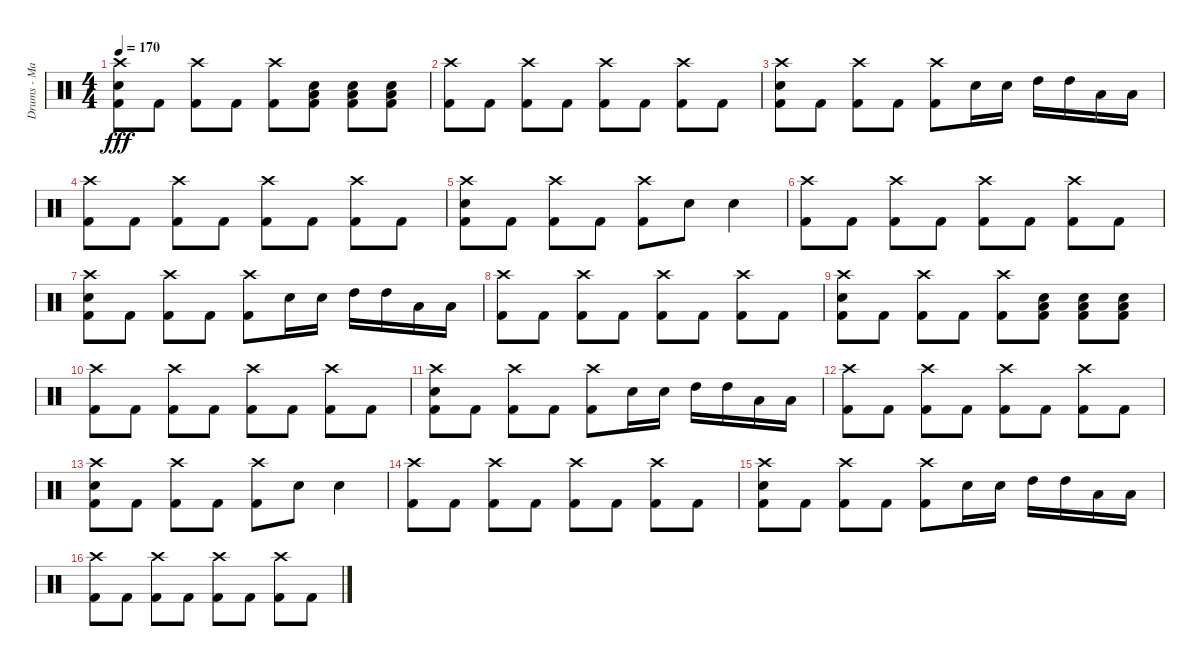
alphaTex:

\track ("Drums - Matt Traynor" "Drums - Ma") {instrument percussion}
\staff {score}
\articulation defaults
\ts (4 4)
\tempo 170
\clef neutral
\ks c
("Crash high (hit)" "Snare (hit) 2" "Kick (hit) 2").8{dy fff} "Kick (hit) 2".8 ("Crash high (hit)" "Kick (hit) 2").8 "Kick (hit) 2".8 ("Crash high (hit)" "Kick (hit) 2").8 ("Snare (hit) 2" "Low Tom (hit)" "Kick (hit) 2").8 ("Snare (hit) 2" "Low Tom (hit)" "Kick (hit) 2").8 ("Snare (hit) 2" "Low Tom (hit)" "Kick (hit) 2").8 |
("Crash high (hit)" "Kick (hit) 2").8 "Kick (hit) 2".8 ("Crash high (hit)" "Kick (hit) 2").8 "Kick (hit) 2".8 ("Crash high (hit)" "Kick (hit) 2").8 "Kick (hit) 2".8 ("Crash high (hit)" "Kick (hit) 2").8 "Kick (hit) 2".8 |
("Crash high (hit)" "Snare (hit) 2" "Kick (hit) 2").8 "Kick (hit) 2".8 ("Crash high (hit)" "Kick (hit) 2").8 "Kick (hit) 2".8 ("Crash high (hit)" "Kick (hit) 2").8 "Snare (hit) 2".16 "Snare (hit) 2".16 "High Tom (hit)".16 "High Tom (hit)".16 "Low Tom (hit)".16 "Low Tom (hit)".16 |
("Crash high (hit)" "Kick (hit) 2").8 "Kick (hit) 2".8 ("Crash high (hit)" "Kick (hit) 2").8 "Kick (hit) 2".8 ("Crash high (hit)" "Kick (hit) 2").8 "Kick (hit) 2".8 ("Crash high (hit)" "Kick (hit) 2").8 "Kick (hit) 2".8 |
("Crash high (hit)" "Snare (hit) 2" "Kick (hit) 2").8 "Kick (hit) 2".8 ("Crash high (hit)" "Kick (hit) 2").8 "Kick (hit) 2".8 ("Crash high (hit)" "Kick (hit) 2").8 "Snare (hit) 2".8 "Snare (hit) 2".4 |
("Crash high (hit)" "Kick (hit) 2").8 "Kick (hit) 2".8 ("Crash high (hit)" "Kick (hit) 2").8 "Kick (hit) 2".8 ("Crash high (hit)" "Kick (hit) 2").8 "Kick (hit) 2".8 ("Crash high (hit)" "Kick (hit) 2").8 "Kick (hit) 2".8 |
("Crash high (hit)" "Snare (hit) 2" "Kick (hit) 2").8 "Kick (hit) 2".8 ("Crash high (hit)" "Kick (hit) 2").8 "Kick (hit) 2".8 ("Crash high (hit)" "Kick (hit) 2").8 "Snare (hit) 2".16 "Snare (hit) 2".16 "High Tom (hit)".16 "High Tom (hit)".16 "Low Tom (hit)".16 "Low Tom (hit)".16 |
("Crash high (hit)" "Kick (hit) 2").8 "Kick (hit) 2".8 ("Crash high (hit)" "Kick (hit) 2").8 "Kick (hit) 2".8 ("Crash high (hit)" "Kick (hit) 2").8 "Kick (hit) 2".8 ("Crash high (hit)" "Kick (hit) 2").8 "Kick (hit) 2".8 |
("Crash high (hit)" "Snare (hit) 2" "Kick (hit) 2").8 "Kick (hit) 2".8 ("Crash high (hit)" "Kick (hit) 2").8 "Kick (hit) 2".8 ("Crash high (hit)" "Kick (hit) 2").8 ("Snare (hit) 2" "Low Tom (hit)" "Kick (hit) 2").8 ("Snare (hit) 2" "Low Tom (hit)" "Kick (hit) 2").8 ("Snare (hit) 2" "Low Tom (hit)" "Kick (hit) 2").8 |
("Crash high (hit)" "Kick (hit) 2").8 "Kick (hit) 2".8 ("Crash high (hit)" "Kick (hit) 2").8 "Kick (hit) 2".8 ("Crash high (hit)" "Kick (hit) 2").8 "Kick (hit) 2".8 ("Crash high (hit)" "Kick (hit) 2").8 "Kick (hit) 2".8 |
("Crash high (hit)" "Snare (hit) 2" "Kick (hit) 2").8 "Kick (hit) 2".8 ("Crash high (hit)" "Kick (hit) 2").8 "Kick (hit) 2".8 ("Crash high (hit)" "Kick (hit) 2").8 "Snare (hit) 2".16 "Snare (hit) 2".16 "High Tom (hit)".16 "High Tom (hit)".16 "Low Tom (hit)".16 "Low Tom (hit)".16 |
("Crash high (hit)" "Kick (hit) 2").8 "Kick (hit) 2".8 ("Crash high (hit)" "Kick (hit) 2").8 "Kick (hit) 2".8 ("Crash high (hit)" "Kick (hit) 2").8 "Kick (hit) 2".8 ("Crash high (hit)" "Kick (hit) 2").8 "Kick (hit) 2".8 |
("Crash high (hit)" "Snare (hit) 2" "Kick (hit) 2").8 "Kick (hit) 2".8 ("Crash high (hit)" "Kick (hit) 2").8 "Kick (hit) 2".8 ("Crash high (hit)" "Kick (hit) 2").8 "Snare (hit) 2".8 "Snare (hit) 2".4 |
("Crash high (hit)" "Kick (hit) 2").8 "Kick (hit) 2".8 ("Crash high (hit)" "Kick (hit) 2").8 "Kick (hit) 2".8 ("Crash high (hit)" "Kick (hit) 2").8 "Kick (hit) 2".8 ("Crash high (hit)" "Kick (hit) 2").8 "Kick (hit) 2".8 |
("Crash high (hit)" "Snare (hit) 2" "Kick (hit) 2").8 "Kick (hit) 2".8 ("Crash high (hit)" "Kick (hit) 2").8 "Kick (hit) 2".8 ("Crash high (hit)" "Kick (hit) 2").8 "Snare (hit) 2".16 "Snare (hit) 2".16 "High Tom (hit)".16 "High Tom (hit)".16 "Low Tom (hit)".16 "Low Tom (hit)".16 |
("Crash high (hit)" "Kick (hit) 2").8 "Kick (hit) 2".8 ("Crash high (hit)" "Kick (hit) 2").8 "Kick (hit) 2".8 ("Crash high (hit)" "Kick (hit) 2").8 "Kick (hit) 2".8 ("Crash high (hit)" "Kick (hit) 2").8 "Kick (hit) 2".8
